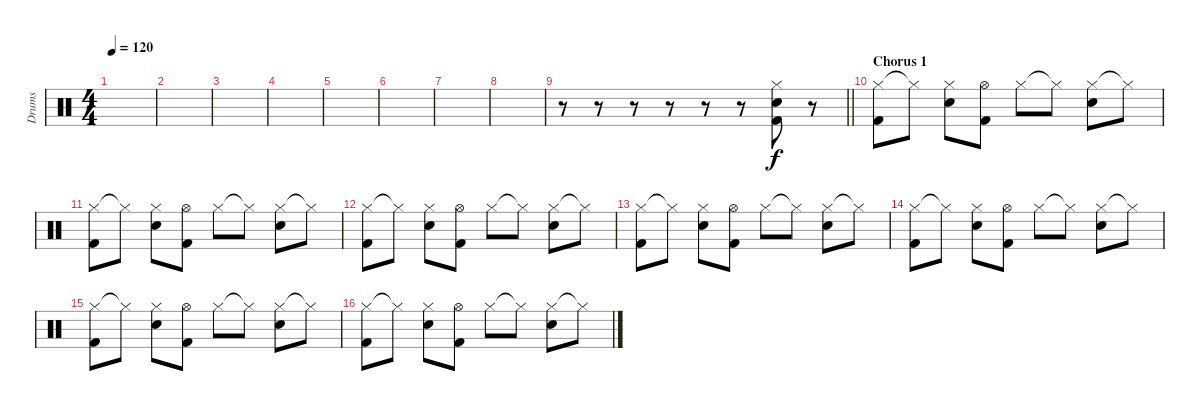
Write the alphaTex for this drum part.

\track ("Drums" "Drums") {instrument percussion}
\staff {score}
\articulation defaults
\ts (4 4)
\tempo 120
\clef neutral
\ks c
|
|
|
|
|
|
|
|
\barLineRight lightlight
r.8 r.8 r.8 r.8 r.8 r.8 ("Hi-Hat (closed)" "Electric Snare (hit)" "Kick (hit) 2").8 r.8 |
\section ("" "Chorus 1")
("Hi-Hat (closed)" "Kick (hit) 2").8 "Hi-Hat (closed)"{t}.8 ("Hi-Hat (closed)" "Electric Snare (hit)").8 ("Hi-Hat (open)" "Kick (hit) 2").8 "Hi-Hat (closed)".8 "Hi-Hat (closed)"{t}.8 ("Hi-Hat (closed)" "Electric Snare (hit)").8 "Hi-Hat (closed)"{t}.8 |
("Hi-Hat (closed)" "Kick (hit) 2").8 "Hi-Hat (closed)"{t}.8 ("Hi-Hat (closed)" "Electric Snare (hit)").8 ("Hi-Hat (open)" "Kick (hit) 2").8 "Hi-Hat (closed)".8 "Hi-Hat (closed)"{t}.8 ("Hi-Hat (closed)" "Electric Snare (hit)").8 "Hi-Hat (closed)"{t}.8 |
("Hi-Hat (closed)" "Kick (hit) 2").8 "Hi-Hat (closed)"{t}.8 ("Hi-Hat (closed)" "Electric Snare (hit)").8 ("Hi-Hat (open)" "Kick (hit) 2").8 "Hi-Hat (closed)".8 "Hi-Hat (closed)"{t}.8 ("Hi-Hat (closed)" "Electric Snare (hit)").8 "Hi-Hat (closed)"{t}.8 |
("Hi-Hat (closed)" "Kick (hit) 2").8 "Hi-Hat (closed)"{t}.8 ("Hi-Hat (closed)" "Electric Snare (hit)").8 ("Hi-Hat (open)" "Kick (hit) 2").8 "Hi-Hat (closed)".8 "Hi-Hat (closed)"{t}.8 ("Hi-Hat (closed)" "Electric Snare (hit)").8 "Hi-Hat (closed)"{t}.8 |
("Hi-Hat (closed)" "Kick (hit) 2").8 "Hi-Hat (closed)"{t}.8 ("Hi-Hat (closed)" "Electric Snare (hit)").8 ("Hi-Hat (open)" "Kick (hit) 2").8 "Hi-Hat (closed)".8 "Hi-Hat (closed)"{t}.8 ("Hi-Hat (closed)" "Electric Snare (hit)").8 "Hi-Hat (closed)"{t}.8 |
("Hi-Hat (closed)" "Kick (hit) 2").8 "Hi-Hat (closed)"{t}.8 ("Hi-Hat (closed)" "Electric Snare (hit)").8 ("Hi-Hat (open)" "Kick (hit) 2").8 "Hi-Hat (closed)".8 "Hi-Hat (closed)"{t}.8 ("Hi-Hat (closed)" "Electric Snare (hit)").8 "Hi-Hat (closed)"{t}.8 |
("Hi-Hat (closed)" "Kick (hit) 2").8 "Hi-Hat (closed)"{t}.8 ("Hi-Hat (closed)" "Electric Snare (hit)").8 ("Hi-Hat (open)" "Kick (hit) 2").8 "Hi-Hat (closed)".8 "Hi-Hat (closed)"{t}.8 ("Hi-Hat (closed)" "Electric Snare (hit)").8 "Hi-Hat (closed)"{t}.8
